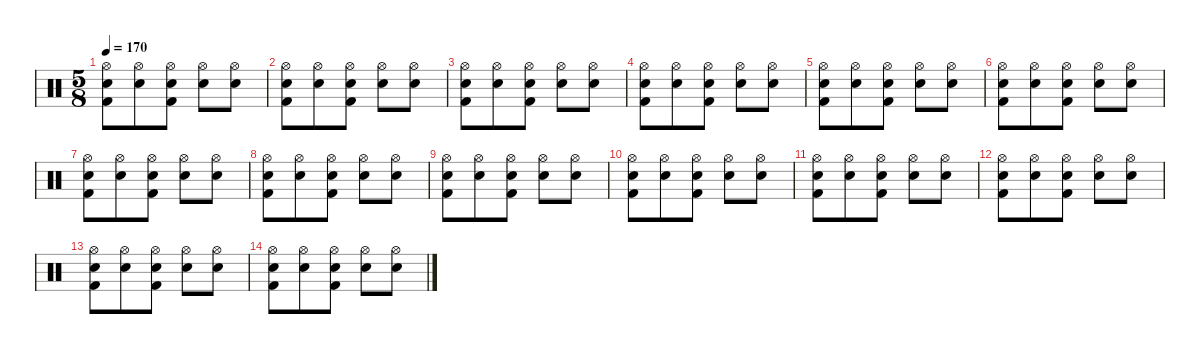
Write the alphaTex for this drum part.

\defaultSystemsLayout 4
\hideDynamics
\bracketExtendMode nobrackets
\singleTrackTrackNamePolicy hidden
\multiTrackTrackNamePolicy hidden
\firstSystemTrackNameMode fullname
\firstSystemTrackNameOrientation horizontal
\otherSystemsTrackNameOrientation horizontal
\track ("Drums" "drm.") {instrument percussion}
\staff {score}
\articulation defaults
\ts (5 8)
\tempo 170
\clef neutral
\ks c
("Hi-Hat (open)" "Snare (hit) 2" "Kick (hit) 2").8{dy ff beam Down} ("Hi-Hat (open)" "Snare (hit) 2").8{dy f beam Down} ("Hi-Hat (open)" "Snare (hit) 2" "Kick (hit) 2").8{dy ff beam Down} ("Hi-Hat (open)" "Snare (hit) 2").8{dy f beam Down} ("Hi-Hat (open)" "Snare (hit) 2").8{beam Down} |
("Hi-Hat (open)" "Snare (hit) 2" "Kick (hit) 2").8{dy ff beam Down} ("Hi-Hat (open)" "Snare (hit) 2").8{dy f beam Down} ("Hi-Hat (open)" "Snare (hit) 2" "Kick (hit) 2").8{dy ff beam Down} ("Hi-Hat (open)" "Snare (hit) 2").8{dy f beam Down} ("Hi-Hat (open)" "Snare (hit) 2").8{beam Down} |
("Hi-Hat (open)" "Snare (hit) 2" "Kick (hit) 2").8{dy ff beam Down} ("Hi-Hat (open)" "Snare (hit) 2").8{dy f beam Down} ("Hi-Hat (open)" "Snare (hit) 2" "Kick (hit) 2").8{dy ff beam Down} ("Hi-Hat (open)" "Snare (hit) 2").8{dy f beam Down} ("Hi-Hat (open)" "Snare (hit) 2").8{beam Down} |
("Hi-Hat (open)" "Snare (hit) 2" "Kick (hit) 2").8{dy ff beam Down} ("Hi-Hat (open)" "Snare (hit) 2").8{dy f beam Down} ("Hi-Hat (open)" "Snare (hit) 2" "Kick (hit) 2").8{dy ff beam Down} ("Hi-Hat (open)" "Snare (hit) 2").8{dy f beam Down} ("Hi-Hat (open)" "Snare (hit) 2").8{beam Down} |
("Hi-Hat (open)" "Snare (hit) 2" "Kick (hit) 2").8{dy ff beam Down} ("Hi-Hat (open)" "Snare (hit) 2").8{dy f beam Down} ("Hi-Hat (open)" "Snare (hit) 2" "Kick (hit) 2").8{dy ff beam Down} ("Hi-Hat (open)" "Snare (hit) 2").8{dy f beam Down} ("Hi-Hat (open)" "Snare (hit) 2").8{beam Down} |
("Hi-Hat (open)" "Snare (hit) 2" "Kick (hit) 2").8{dy ff beam Down} ("Hi-Hat (open)" "Snare (hit) 2").8{dy f beam Down} ("Hi-Hat (open)" "Snare (hit) 2" "Kick (hit) 2").8{dy ff beam Down} ("Hi-Hat (open)" "Snare (hit) 2").8{dy f beam Down} ("Hi-Hat (open)" "Snare (hit) 2").8{beam Down} |
("Hi-Hat (open)" "Snare (hit) 2" "Kick (hit) 2").8{dy ff beam Down} ("Hi-Hat (open)" "Snare (hit) 2").8{dy f beam Down} ("Hi-Hat (open)" "Snare (hit) 2" "Kick (hit) 2").8{dy ff beam Down} ("Hi-Hat (open)" "Snare (hit) 2").8{dy f beam Down} ("Hi-Hat (open)" "Snare (hit) 2").8{beam Down} |
("Hi-Hat (open)" "Snare (hit) 2" "Kick (hit) 2").8{dy ff beam Down} ("Hi-Hat (open)" "Snare (hit) 2").8{dy f beam Down} ("Hi-Hat (open)" "Snare (hit) 2" "Kick (hit) 2").8{dy ff beam Down} ("Hi-Hat (open)" "Snare (hit) 2").8{dy f beam Down} ("Hi-Hat (open)" "Snare (hit) 2").8{beam Down} |
("Hi-Hat (open)" "Snare (hit) 2" "Kick (hit) 2").8{dy ff beam Down} ("Hi-Hat (open)" "Snare (hit) 2").8{dy f beam Down} ("Hi-Hat (open)" "Snare (hit) 2" "Kick (hit) 2").8{dy ff beam Down} ("Hi-Hat (open)" "Snare (hit) 2").8{dy f beam Down} ("Hi-Hat (open)" "Snare (hit) 2").8{beam Down} |
("Hi-Hat (open)" "Snare (hit) 2" "Kick (hit) 2").8{dy ff beam Down} ("Hi-Hat (open)" "Snare (hit) 2").8{dy f beam Down} ("Hi-Hat (open)" "Snare (hit) 2" "Kick (hit) 2").8{dy ff beam Down} ("Hi-Hat (open)" "Snare (hit) 2").8{dy f beam Down} ("Hi-Hat (open)" "Snare (hit) 2").8{beam Down} |
("Hi-Hat (open)" "Snare (hit) 2" "Kick (hit) 2").8{dy ff beam Down} ("Hi-Hat (open)" "Snare (hit) 2").8{dy f beam Down} ("Hi-Hat (open)" "Snare (hit) 2" "Kick (hit) 2").8{dy ff beam Down} ("Hi-Hat (open)" "Snare (hit) 2").8{dy f beam Down} ("Hi-Hat (open)" "Snare (hit) 2").8{beam Down} |
("Hi-Hat (open)" "Snare (hit) 2" "Kick (hit) 2").8{dy ff beam Down} ("Hi-Hat (open)" "Snare (hit) 2").8{dy f beam Down} ("Hi-Hat (open)" "Snare (hit) 2" "Kick (hit) 2").8{dy ff beam Down} ("Hi-Hat (open)" "Snare (hit) 2").8{dy f beam Down} ("Hi-Hat (open)" "Snare (hit) 2").8{beam Down} |
("Hi-Hat (open)" "Snare (hit) 2" "Kick (hit) 2").8{dy ff beam Down} ("Hi-Hat (open)" "Snare (hit) 2").8{dy f beam Down} ("Hi-Hat (open)" "Snare (hit) 2" "Kick (hit) 2").8{dy ff beam Down} ("Hi-Hat (open)" "Snare (hit) 2").8{dy f beam Down} ("Hi-Hat (open)" "Snare (hit) 2").8{beam Down} |
("Hi-Hat (open)" "Snare (hit) 2" "Kick (hit) 2").8{dy ff beam Down} ("Hi-Hat (open)" "Snare (hit) 2").8{dy f beam Down} ("Hi-Hat (open)" "Snare (hit) 2" "Kick (hit) 2").8{dy ff beam Down} ("Hi-Hat (open)" "Snare (hit) 2").8{dy f beam Down} ("Hi-Hat (open)" "Snare (hit) 2").8{beam Down}
